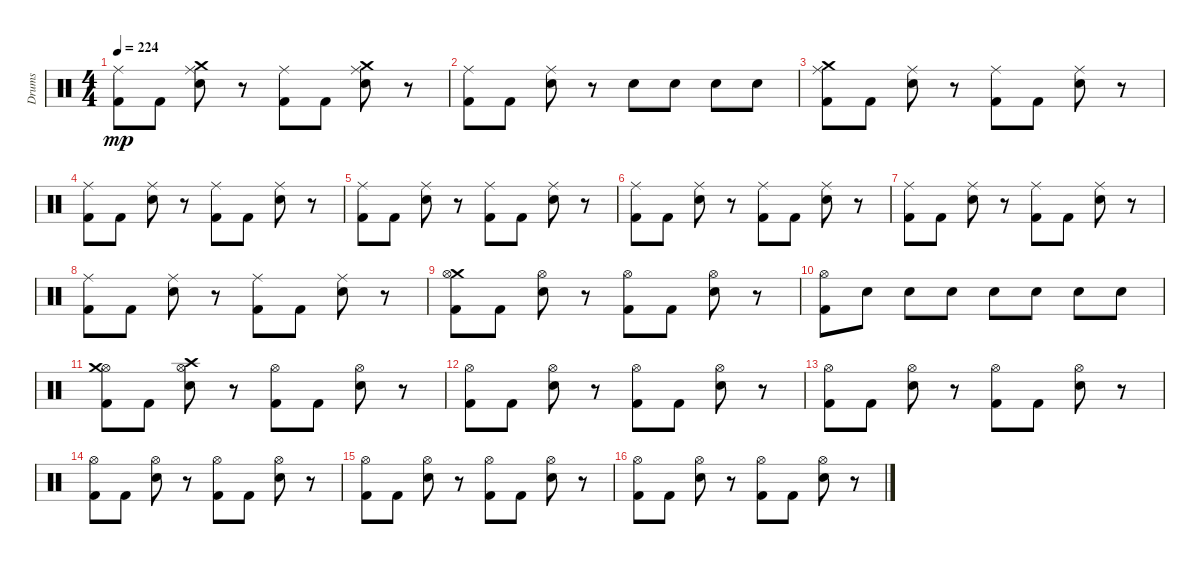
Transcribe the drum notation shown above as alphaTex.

\track ("Drums" "Drums") {instrument percussion}
\staff {score}
\articulation defaults
\ts (4 4)
\tempo 224
\clef neutral
\ks c
("Ride (middle)" "Kick (hit) 2").8{dy mp} "Kick (hit) 2".8 ("Crash medium (hit)" "Electric Snare (hit)" "Ride (middle)").8 r.8 ("Ride (middle)" "Kick (hit) 2").8 "Kick (hit) 2".8 ("Electric Snare (hit)" "Ride (middle)" "Crash medium (hit)").8 r.8 |
("Kick (hit) 2" "Ride (middle)").8 "Kick (hit) 2".8 ("Ride (middle)" "Electric Snare (hit)").8 r.8 "Electric Snare (hit)".8 "Electric Snare (hit)".8 "Electric Snare (hit)".8 "Electric Snare (hit)".8 |
("Ride (middle)" "Crash medium (hit)" "Kick (hit) 2").8 "Kick (hit) 2".8 ("Electric Snare (hit)" "Ride (middle)").8 r.8 ("Kick (hit) 2" "Ride (middle)").8 "Kick (hit) 2".8 ("Electric Snare (hit)" "Ride (middle)").8 r.8 |
("Ride (middle)" "Kick (hit) 2").8 "Kick (hit) 2".8 ("Electric Snare (hit)" "Ride (middle)").8 r.8 ("Ride (middle)" "Kick (hit) 2").8 "Kick (hit) 2".8 ("Electric Snare (hit)" "Ride (middle)").8 r.8 |
("Kick (hit) 2" "Ride (middle)").8 "Kick (hit) 2".8 ("Electric Snare (hit)" "Ride (middle)").8 r.8 ("Ride (middle)" "Kick (hit) 2").8 "Kick (hit) 2".8 ("Electric Snare (hit)" "Ride (middle)").8 r.8 |
("Ride (middle)" "Kick (hit) 2").8 "Kick (hit) 2".8 ("Electric Snare (hit)" "Ride (middle)").8 r.8 ("Ride (middle)" "Kick (hit) 2").8 "Kick (hit) 2".8 ("Electric Snare (hit)" "Ride (middle)").8 r.8 |
("Ride (middle)" "Kick (hit) 2").8 "Kick (hit) 2".8 ("Ride (middle)" "Electric Snare (hit)").8 r.8 ("Kick (hit) 2" "Ride (middle)").8 "Kick (hit) 2".8 ("Ride (middle)" "Electric Snare (hit)").8 r.8 |
("Ride (middle)" "Kick (hit) 2").8 "Kick (hit) 2".8 ("Electric Snare (hit)" "Ride (middle)").8 r.8 ("Ride (middle)" "Kick (hit) 2").8 "Kick (hit) 2".8 ("Electric Snare (hit)" "Ride (middle)").8 r.8 |
("Crash medium (hit)" "Kick (hit) 2" "Hi-Hat (open)").8 "Kick (hit) 2".8 ("Electric Snare (hit)" "Hi-Hat (open)").8 r.8 ("Kick (hit) 2" "Hi-Hat (open)").8 "Kick (hit) 2".8 ("Hi-Hat (open)" "Electric Snare (hit)").8 r.8 |
("Hi-Hat (open)" "Kick (hit) 2").8 "Electric Snare (hit)".8 "Electric Snare (hit)".8 "Electric Snare (hit)".8 "Electric Snare (hit)".8 "Electric Snare (hit)".8 "Electric Snare (hit)".8 "Electric Snare (hit)".8 |
("Hi-Hat (open)" "Crash medium (hit)" "Kick (hit) 2").8 "Kick (hit) 2".8 ("Hi-Hat (open)" "Crash high (hit)" "Electric Snare (hit)").8 r.8 ("Hi-Hat (open)" "Kick (hit) 2").8 "Kick (hit) 2".8 ("Electric Snare (hit)" "Hi-Hat (open)").8 r.8 |
("Kick (hit) 2" "Hi-Hat (open)").8 "Kick (hit) 2".8 ("Electric Snare (hit)" "Hi-Hat (open)").8 r.8 ("Hi-Hat (open)" "Kick (hit) 2").8 "Kick (hit) 2".8 ("Hi-Hat (open)" "Electric Snare (hit)").8 r.8 |
("Hi-Hat (open)" "Kick (hit) 2").8 "Kick (hit) 2".8 ("Hi-Hat (open)" "Electric Snare (hit)").8 r.8 ("Hi-Hat (open)" "Kick (hit) 2").8 "Kick (hit) 2".8 ("Electric Snare (hit)" "Hi-Hat (open)").8 r.8 |
("Hi-Hat (open)" "Kick (hit) 2").8 "Kick (hit) 2".8 ("Hi-Hat (open)" "Electric Snare (hit)").8 r.8 ("Hi-Hat (open)" "Kick (hit) 2").8 "Kick (hit) 2".8 ("Electric Snare (hit)" "Hi-Hat (open)").8 r.8 |
("Hi-Hat (open)" "Kick (hit) 2").8 "Kick (hit) 2".8 ("Hi-Hat (open)" "Electric Snare (hit)").8 r.8 ("Hi-Hat (open)" "Kick (hit) 2").8 "Kick (hit) 2".8 ("Hi-Hat (open)" "Electric Snare (hit)").8 r.8 |
("Kick (hit) 2" "Hi-Hat (open)").8 "Kick (hit) 2".8 ("Electric Snare (hit)" "Hi-Hat (open)").8 r.8 ("Kick (hit) 2" "Hi-Hat (open)").8 "Kick (hit) 2".8 ("Hi-Hat (open)" "Electric Snare (hit)").8 r.8
